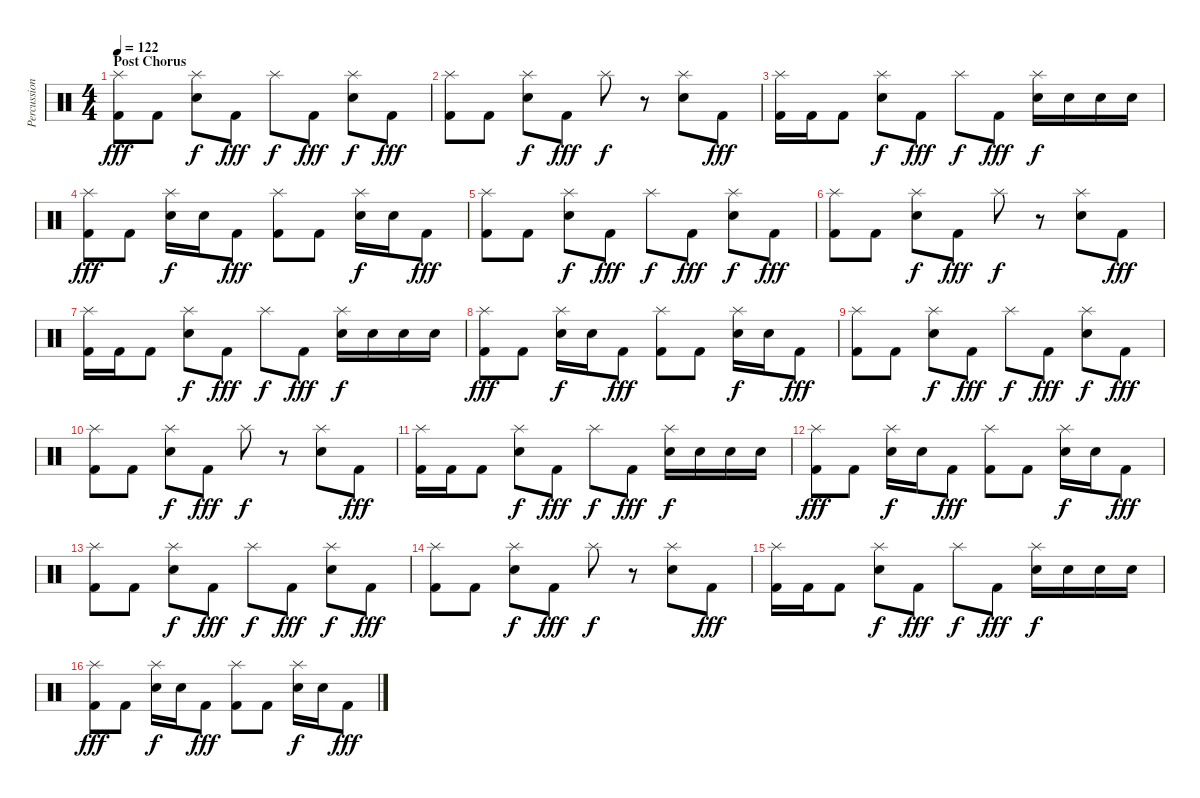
\track ("Percussion" "Percussion") {instrument percussion}
\staff {score}
\articulation defaults
\ts (4 4)
\section ("" "Post Chorus")
\tempo 122
\clef neutral
\ks c
("Splash (hit)" "Kick (hit) 2").8{dy fff volume 15} "Kick (hit) 2".8 ("Splash (hit)" "Snare (hit) 2").8{dy f} "Kick (hit) 2".8{dy fff} "Splash (hit)".8{dy f} "Kick (hit) 2".8{dy fff} ("Splash (hit)" "Snare (hit) 2").8{dy f} "Kick (hit) 2".8{dy fff} |
("Splash (hit)" "Kick (hit) 2").8 "Kick (hit) 2".8 ("Splash (hit)" "Snare (hit) 2").8{dy f} "Kick (hit) 2".8{dy fff} "Splash (hit)".8{dy f} r.8 ("Splash (hit)" "Snare (hit) 2").8 "Kick (hit) 2".8{dy fff} |
("Splash (hit)" "Kick (hit) 2").16 "Kick (hit) 2".16 "Kick (hit) 2".8 ("Splash (hit)" "Snare (hit) 2").8{dy f} "Kick (hit) 2".8{dy fff} "Splash (hit)".8{dy f} "Kick (hit) 2".8{dy fff} ("Splash (hit)" "Snare (hit) 2").16{dy f} "Snare (hit) 2".16 "Snare (hit) 2".16 "Snare (hit) 2".16 |
("Splash (hit)" "Kick (hit) 2").8{dy fff} "Kick (hit) 2".8 ("Splash (hit)" "Snare (hit) 2").16{dy f} "Snare (hit) 2".16 "Kick (hit) 2".8{dy fff} ("Splash (hit)" "Kick (hit) 2").8 "Kick (hit) 2".8 ("Splash (hit)" "Snare (hit) 2").16{dy f} "Snare (hit) 2".16 "Kick (hit) 2".8{dy fff} |
("Splash (hit)" "Kick (hit) 2").8{volume 15} "Kick (hit) 2".8 ("Splash (hit)" "Snare (hit) 2").8{dy f} "Kick (hit) 2".8{dy fff} "Splash (hit)".8{dy f} "Kick (hit) 2".8{dy fff} ("Splash (hit)" "Snare (hit) 2").8{dy f} "Kick (hit) 2".8{dy fff} |
("Splash (hit)" "Kick (hit) 2").8 "Kick (hit) 2".8 ("Splash (hit)" "Snare (hit) 2").8{dy f} "Kick (hit) 2".8{dy fff} "Splash (hit)".8{dy f} r.8 ("Splash (hit)" "Snare (hit) 2").8 "Kick (hit) 2".8{dy fff} |
("Splash (hit)" "Kick (hit) 2").16 "Kick (hit) 2".16 "Kick (hit) 2".8 ("Splash (hit)" "Snare (hit) 2").8{dy f} "Kick (hit) 2".8{dy fff} "Splash (hit)".8{dy f} "Kick (hit) 2".8{dy fff} ("Splash (hit)" "Snare (hit) 2").16{dy f} "Snare (hit) 2".16 "Snare (hit) 2".16 "Snare (hit) 2".16 |
("Splash (hit)" "Kick (hit) 2").8{dy fff} "Kick (hit) 2".8 ("Splash (hit)" "Snare (hit) 2").16{dy f} "Snare (hit) 2".16 "Kick (hit) 2".8{dy fff} ("Splash (hit)" "Kick (hit) 2").8 "Kick (hit) 2".8 ("Splash (hit)" "Snare (hit) 2").16{dy f} "Snare (hit) 2".16 "Kick (hit) 2".8{dy fff} |
("Splash (hit)" "Kick (hit) 2").8{volume 15} "Kick (hit) 2".8 ("Splash (hit)" "Snare (hit) 2").8{dy f} "Kick (hit) 2".8{dy fff} "Splash (hit)".8{dy f} "Kick (hit) 2".8{dy fff} ("Splash (hit)" "Snare (hit) 2").8{dy f} "Kick (hit) 2".8{dy fff} |
("Splash (hit)" "Kick (hit) 2").8 "Kick (hit) 2".8 ("Splash (hit)" "Snare (hit) 2").8{dy f} "Kick (hit) 2".8{dy fff} "Splash (hit)".8{dy f} r.8 ("Splash (hit)" "Snare (hit) 2").8 "Kick (hit) 2".8{dy fff} |
("Splash (hit)" "Kick (hit) 2").16 "Kick (hit) 2".16 "Kick (hit) 2".8 ("Splash (hit)" "Snare (hit) 2").8{dy f} "Kick (hit) 2".8{dy fff} "Splash (hit)".8{dy f} "Kick (hit) 2".8{dy fff} ("Splash (hit)" "Snare (hit) 2").16{dy f} "Snare (hit) 2".16 "Snare (hit) 2".16 "Snare (hit) 2".16 |
("Splash (hit)" "Kick (hit) 2").8{dy fff} "Kick (hit) 2".8 ("Splash (hit)" "Snare (hit) 2").16{dy f} "Snare (hit) 2".16 "Kick (hit) 2".8{dy fff} ("Splash (hit)" "Kick (hit) 2").8 "Kick (hit) 2".8 ("Splash (hit)" "Snare (hit) 2").16{dy f} "Snare (hit) 2".16 "Kick (hit) 2".8{dy fff} |
("Splash (hit)" "Kick (hit) 2").8{volume 15} "Kick (hit) 2".8 ("Splash (hit)" "Snare (hit) 2").8{dy f} "Kick (hit) 2".8{dy fff} "Splash (hit)".8{dy f} "Kick (hit) 2".8{dy fff} ("Splash (hit)" "Snare (hit) 2").8{dy f} "Kick (hit) 2".8{dy fff} |
("Splash (hit)" "Kick (hit) 2").8 "Kick (hit) 2".8 ("Splash (hit)" "Snare (hit) 2").8{dy f} "Kick (hit) 2".8{dy fff} "Splash (hit)".8{dy f} r.8 ("Splash (hit)" "Snare (hit) 2").8 "Kick (hit) 2".8{dy fff} |
("Splash (hit)" "Kick (hit) 2").16 "Kick (hit) 2".16 "Kick (hit) 2".8 ("Splash (hit)" "Snare (hit) 2").8{dy f} "Kick (hit) 2".8{dy fff} "Splash (hit)".8{dy f} "Kick (hit) 2".8{dy fff} ("Splash (hit)" "Snare (hit) 2").16{dy f} "Snare (hit) 2".16 "Snare (hit) 2".16 "Snare (hit) 2".16 |
("Splash (hit)" "Kick (hit) 2").8{dy fff} "Kick (hit) 2".8 ("Splash (hit)" "Snare (hit) 2").16{dy f} "Snare (hit) 2".16 "Kick (hit) 2".8{dy fff} ("Splash (hit)" "Kick (hit) 2").8 "Kick (hit) 2".8 ("Splash (hit)" "Snare (hit) 2").16{dy f} "Snare (hit) 2".16 "Kick (hit) 2".8{dy fff}
